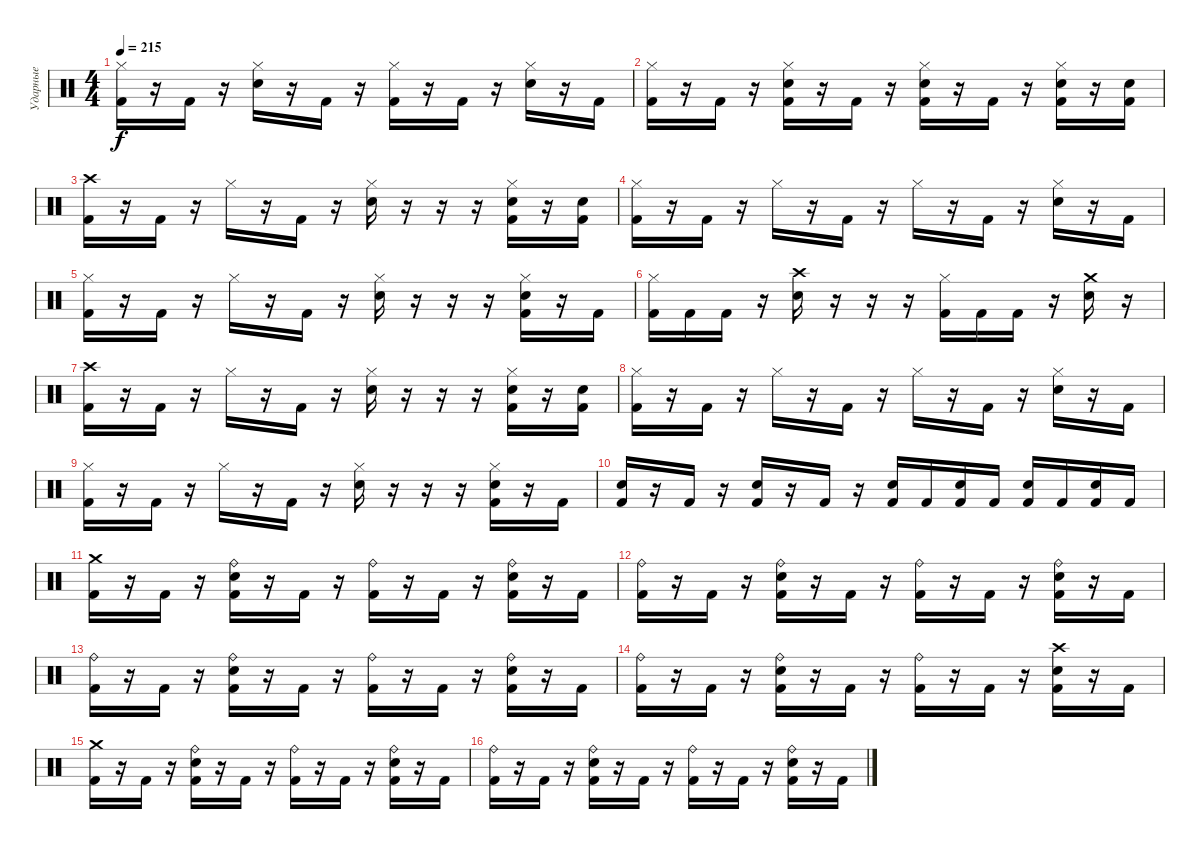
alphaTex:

\track ("Ударные" "Ударные") {instrument percussion}
\staff {score}
\articulation defaults
\ts (4 4)
\tempo 215
\clef neutral
\ks c
("Hi-Hat (closed)" "Kick (hit) 2").16{dy f} r.16 "Kick (hit) 2".16 r.16 ("Hi-Hat (closed)" "Snare (hit) 2").16 r.16 "Kick (hit) 2".16 r.16 ("Hi-Hat (closed)" "Kick (hit) 2").16 r.16 "Kick (hit) 2".16 r.16 ("Hi-Hat (closed)" "Snare (hit) 2").16 r.16 "Kick (hit) 2".16 |
("Hi-Hat (closed)" "Kick (hit) 2").16 r.16 "Kick (hit) 2".16 r.16 ("Hi-Hat (closed)" "Snare (hit) 2" "Kick (hit) 2").16 r.16 "Kick (hit) 2".16 r.16 ("Hi-Hat (closed)" "Snare (hit) 2" "Kick (hit) 2").16 r.16 "Kick (hit) 2".16 r.16 ("Hi-Hat (closed)" "Snare (hit) 2" "Kick (hit) 2").16 r.16 ("Snare (hit) 2" "Kick (hit) 2").16 |
("Crash high (hit)" "Kick (hit) 2").16 r.16 "Kick (hit) 2".16 r.16 "Hi-Hat (closed)".16 r.16 "Kick (hit) 2".16 r.16 ("Hi-Hat (closed)" "Snare (hit) 2").16 r.16 r.16 r.16 ("Hi-Hat (closed)" "Snare (hit) 2" "Kick (hit) 2").16 r.16 ("Snare (hit) 2" "Kick (hit) 2").16 |
("Hi-Hat (closed)" "Kick (hit) 2").16 r.16 "Kick (hit) 2".16 r.16 "Hi-Hat (closed)".16 r.16 "Kick (hit) 2".16 r.16 "Hi-Hat (closed)".16 r.16 "Kick (hit) 2".16 r.16 ("Hi-Hat (closed)" "Snare (hit) 2").16 r.16 "Kick (hit) 2".16 |
("Hi-Hat (closed)" "Kick (hit) 2").16 r.16 "Kick (hit) 2".16 r.16 "Hi-Hat (closed)".16 r.16 "Kick (hit) 2".16 r.16 ("Hi-Hat (closed)" "Snare (hit) 2").16 r.16 r.16 r.16 ("Hi-Hat (closed)" "Snare (hit) 2" "Kick (hit) 2").16 r.16 "Kick (hit) 2".16 |
("Hi-Hat (closed)" "Kick (hit) 2").16 "Kick (hit) 2".16 "Kick (hit) 2".16 r.16 ("Crash high (hit)" "Snare (hit) 2").16 r.16 r.16 r.16 ("Hi-Hat (closed)" "Kick (hit) 2").16 "Kick (hit) 2".16 "Kick (hit) 2".16 r.16 ("Crash medium (hit)" "Snare (hit) 2").16 r.16 |
("Crash high (hit)" "Kick (hit) 2").16 r.16 "Kick (hit) 2".16 r.16 "Hi-Hat (closed)".16 r.16 "Kick (hit) 2".16 r.16 ("Hi-Hat (closed)" "Snare (hit) 2").16 r.16 r.16 r.16 ("Hi-Hat (closed)" "Snare (hit) 2" "Kick (hit) 2").16 r.16 ("Snare (hit) 2" "Kick (hit) 2").16 |
("Hi-Hat (closed)" "Kick (hit) 2").16 r.16 "Kick (hit) 2".16 r.16 "Hi-Hat (closed)".16 r.16 "Kick (hit) 2".16 r.16 "Hi-Hat (closed)".16 r.16 "Kick (hit) 2".16 r.16 ("Hi-Hat (closed)" "Snare (hit) 2").16 r.16 "Kick (hit) 2".16 |
("Hi-Hat (closed)" "Kick (hit) 2").16 r.16 "Kick (hit) 2".16 r.16 "Hi-Hat (closed)".16 r.16 "Kick (hit) 2".16 r.16 ("Hi-Hat (closed)" "Snare (hit) 2").16 r.16 r.16 r.16 ("Hi-Hat (closed)" "Snare (hit) 2" "Kick (hit) 2").16 r.16 "Kick (hit) 2".16 |
("Snare (hit) 2" "Kick (hit) 2").16 r.16 "Kick (hit) 2".16 r.16 ("Snare (hit) 2" "Kick (hit) 2").16 r.16 "Kick (hit) 2".16 r.16 ("Snare (hit) 2" "Kick (hit) 2").16 "Kick (hit) 2".16 ("Snare (hit) 2" "Kick (hit) 2").16 "Kick (hit) 2".16 ("Snare (hit) 2" "Kick (hit) 2").16 "Kick (hit) 2".16 ("Snare (hit) 2" "Kick (hit) 2").16 "Kick (hit) 2".16 |
("Crash medium (hit)" "Kick (hit) 2").16 r.16 "Kick (hit) 2".16 r.16 ("Ride (bell)" "Snare (hit) 2" "Kick (hit) 2").16 r.16 "Kick (hit) 2".16 r.16 ("Ride (bell)" "Kick (hit) 2").16 r.16 "Kick (hit) 2".16 r.16 ("Ride (bell)" "Snare (hit) 2" "Kick (hit) 2").16 r.16 "Kick (hit) 2".16 |
("Ride (bell)" "Kick (hit) 2").16 r.16 "Kick (hit) 2".16 r.16 ("Ride (bell)" "Snare (hit) 2" "Kick (hit) 2").16 r.16 "Kick (hit) 2".16 r.16 ("Ride (bell)" "Kick (hit) 2").16 r.16 "Kick (hit) 2".16 r.16 ("Ride (bell)" "Snare (hit) 2" "Kick (hit) 2").16 r.16 "Kick (hit) 2".16 |
("Ride (bell)" "Kick (hit) 2").16 r.16 "Kick (hit) 2".16 r.16 ("Ride (bell)" "Snare (hit) 2" "Kick (hit) 2").16 r.16 "Kick (hit) 2".16 r.16 ("Ride (bell)" "Kick (hit) 2").16 r.16 "Kick (hit) 2".16 r.16 ("Ride (bell)" "Snare (hit) 2" "Kick (hit) 2").16 r.16 "Kick (hit) 2".16 |
("Ride (bell)" "Kick (hit) 2").16 r.16 "Kick (hit) 2".16 r.16 ("Ride (bell)" "Snare (hit) 2" "Kick (hit) 2").16 r.16 "Kick (hit) 2".16 r.16 ("Ride (bell)" "Kick (hit) 2").16 r.16 "Kick (hit) 2".16 r.16 ("Crash high (hit)" "Snare (hit) 2" "Kick (hit) 2").16 r.16 "Kick (hit) 2".16 |
("Crash medium (hit)" "Kick (hit) 2").16 r.16 "Kick (hit) 2".16 r.16 ("Ride (bell)" "Snare (hit) 2" "Kick (hit) 2").16 r.16 "Kick (hit) 2".16 r.16 ("Ride (bell)" "Kick (hit) 2").16 r.16 "Kick (hit) 2".16 r.16 ("Ride (bell)" "Snare (hit) 2" "Kick (hit) 2").16 r.16 "Kick (hit) 2".16 |
("Ride (bell)" "Kick (hit) 2").16 r.16 "Kick (hit) 2".16 r.16 ("Ride (bell)" "Snare (hit) 2" "Kick (hit) 2").16 r.16 "Kick (hit) 2".16 r.16 ("Ride (bell)" "Kick (hit) 2").16 r.16 "Kick (hit) 2".16 r.16 ("Ride (bell)" "Snare (hit) 2" "Kick (hit) 2").16 r.16 "Kick (hit) 2".16
